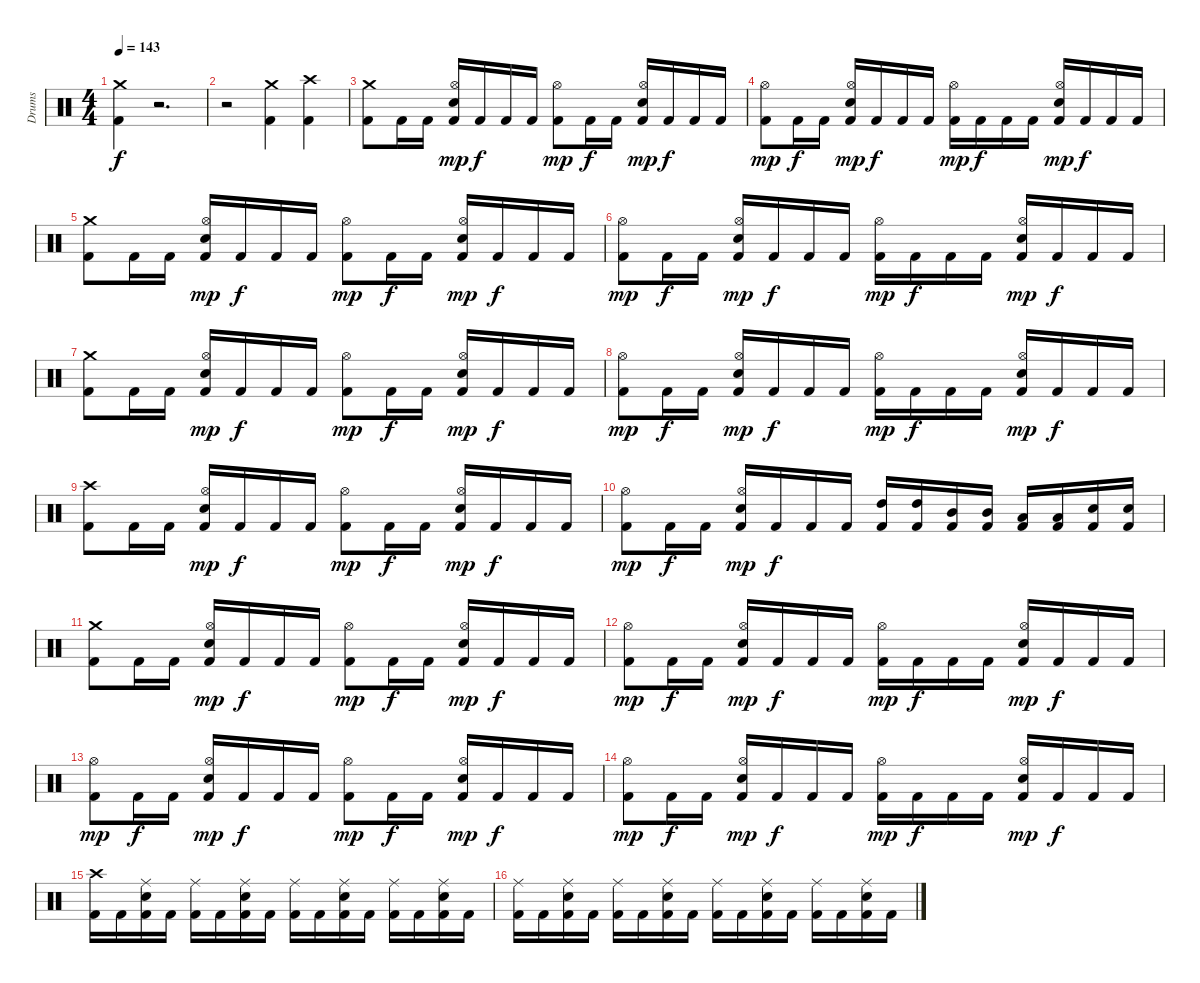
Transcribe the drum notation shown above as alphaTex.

\track ("Drums" "Drums") {instrument percussion}
\staff {score}
\articulation defaults
\ts (4 4)
\tempo 143
\clef neutral
\ks c
("Crash medium (hit)" "Kick (hit) 2").4{dy f} r.2{d} |
r.2 ("Crash medium (hit)" "Kick (hit) 2").4 ("Crash high (hit)" "Kick (hit) 2").4 |
("Crash medium (hit)" "Kick (hit) 2").8 "Kick (hit) 2".16 "Kick (hit) 2".16 ("Hi-Hat (open)" "Electric Snare (hit)" "Kick (hit) 2").16{dy mp} "Kick (hit) 2".16{dy f} "Kick (hit) 2".16 "Kick (hit) 2".16 ("Hi-Hat (open)" "Kick (hit) 2").8{dy mp} "Kick (hit) 2".16{dy f} "Kick (hit) 2".16 ("Hi-Hat (open)" "Electric Snare (hit)" "Kick (hit) 2").16{dy mp} "Kick (hit) 2".16{dy f} "Kick (hit) 2".16 "Kick (hit) 2".16 |
("Hi-Hat (open)" "Kick (hit) 2").8{dy mp} "Kick (hit) 2".16{dy f} "Kick (hit) 2".16 ("Hi-Hat (open)" "Electric Snare (hit)" "Kick (hit) 2").16{dy mp} "Kick (hit) 2".16{dy f} "Kick (hit) 2".16 "Kick (hit) 2".16 ("Hi-Hat (open)" "Kick (hit) 2").16{dy mp} "Kick (hit) 2".16{dy f} "Kick (hit) 2".16 "Kick (hit) 2".16 ("Hi-Hat (open)" "Electric Snare (hit)" "Kick (hit) 2").16{dy mp} "Kick (hit) 2".16{dy f} "Kick (hit) 2".16 "Kick (hit) 2".16 |
("Crash medium (hit)" "Kick (hit) 2").8 "Kick (hit) 2".16 "Kick (hit) 2".16 ("Hi-Hat (open)" "Electric Snare (hit)" "Kick (hit) 2").16{dy mp} "Kick (hit) 2".16{dy f} "Kick (hit) 2".16 "Kick (hit) 2".16 ("Hi-Hat (open)" "Kick (hit) 2").8{dy mp} "Kick (hit) 2".16{dy f} "Kick (hit) 2".16 ("Hi-Hat (open)" "Electric Snare (hit)" "Kick (hit) 2").16{dy mp} "Kick (hit) 2".16{dy f} "Kick (hit) 2".16 "Kick (hit) 2".16 |
("Hi-Hat (open)" "Kick (hit) 2").8{dy mp} "Kick (hit) 2".16{dy f} "Kick (hit) 2".16 ("Hi-Hat (open)" "Electric Snare (hit)" "Kick (hit) 2").16{dy mp} "Kick (hit) 2".16{dy f} "Kick (hit) 2".16 "Kick (hit) 2".16 ("Hi-Hat (open)" "Kick (hit) 2").16{dy mp} "Kick (hit) 2".16{dy f} "Kick (hit) 2".16 "Kick (hit) 2".16 ("Hi-Hat (open)" "Electric Snare (hit)" "Kick (hit) 2").16{dy mp} "Kick (hit) 2".16{dy f} "Kick (hit) 2".16 "Kick (hit) 2".16 |
("Crash medium (hit)" "Kick (hit) 2").8 "Kick (hit) 2".16 "Kick (hit) 2".16 ("Hi-Hat (open)" "Electric Snare (hit)" "Kick (hit) 2").16{dy mp} "Kick (hit) 2".16{dy f} "Kick (hit) 2".16 "Kick (hit) 2".16 ("Hi-Hat (open)" "Kick (hit) 2").8{dy mp} "Kick (hit) 2".16{dy f} "Kick (hit) 2".16 ("Hi-Hat (open)" "Electric Snare (hit)" "Kick (hit) 2").16{dy mp} "Kick (hit) 2".16{dy f} "Kick (hit) 2".16 "Kick (hit) 2".16 |
("Hi-Hat (open)" "Kick (hit) 2").8{dy mp} "Kick (hit) 2".16{dy f} "Kick (hit) 2".16 ("Hi-Hat (open)" "Electric Snare (hit)" "Kick (hit) 2").16{dy mp} "Kick (hit) 2".16{dy f} "Kick (hit) 2".16 "Kick (hit) 2".16 ("Hi-Hat (open)" "Kick (hit) 2").16{dy mp} "Kick (hit) 2".16{dy f} "Kick (hit) 2".16 "Kick (hit) 2".16 ("Hi-Hat (open)" "Electric Snare (hit)" "Kick (hit) 2").16{dy mp} "Kick (hit) 2".16{dy f} "Kick (hit) 2".16 "Kick (hit) 2".16 |
("Crash high (hit)" "Kick (hit) 2").8 "Kick (hit) 2".16 "Kick (hit) 2".16 ("Hi-Hat (open)" "Electric Snare (hit)" "Kick (hit) 2").16{dy mp} "Kick (hit) 2".16{dy f} "Kick (hit) 2".16 "Kick (hit) 2".16 ("Hi-Hat (open)" "Kick (hit) 2").8{dy mp} "Kick (hit) 2".16{dy f} "Kick (hit) 2".16 ("Hi-Hat (open)" "Electric Snare (hit)" "Kick (hit) 2").16{dy mp} "Kick (hit) 2".16{dy f} "Kick (hit) 2".16 "Kick (hit) 2".16 |
("Hi-Hat (open)" "Kick (hit) 2").8{dy mp} "Kick (hit) 2".16{dy f} "Kick (hit) 2".16 ("Hi-Hat (open)" "Electric Snare (hit)" "Kick (hit) 2").16{dy mp} "Kick (hit) 2".16{dy f} "Kick (hit) 2".16 "Kick (hit) 2".16 ("High Tom (hit)" "Kick (hit) 2").16 ("High Tom (hit)" "Kick (hit) 2").16 ("Mid Tom (hit)" "Kick (hit) 2").16 ("Mid Tom (hit)" "Kick (hit) 2").16 ("Low Tom (hit)" "Kick (hit) 2").16 ("Low Tom (hit)" "Kick (hit) 2").16 ("Electric Snare (hit)" "Kick (hit) 2").16 ("Electric Snare (hit)" "Kick (hit) 2").16 |
("Crash medium (hit)" "Kick (hit) 2").8 "Kick (hit) 2".16 "Kick (hit) 2".16 ("Hi-Hat (open)" "Electric Snare (hit)" "Kick (hit) 2").16{dy mp} "Kick (hit) 2".16{dy f} "Kick (hit) 2".16 "Kick (hit) 2".16 ("Hi-Hat (open)" "Kick (hit) 2").8{dy mp} "Kick (hit) 2".16{dy f} "Kick (hit) 2".16 ("Hi-Hat (open)" "Electric Snare (hit)" "Kick (hit) 2").16{dy mp} "Kick (hit) 2".16{dy f} "Kick (hit) 2".16 "Kick (hit) 2".16 |
("Hi-Hat (open)" "Kick (hit) 2").8{dy mp} "Kick (hit) 2".16{dy f} "Kick (hit) 2".16 ("Hi-Hat (open)" "Electric Snare (hit)" "Kick (hit) 2").16{dy mp} "Kick (hit) 2".16{dy f} "Kick (hit) 2".16 "Kick (hit) 2".16 ("Hi-Hat (open)" "Kick (hit) 2").16{dy mp} "Kick (hit) 2".16{dy f} "Kick (hit) 2".16 "Kick (hit) 2".16 ("Hi-Hat (open)" "Electric Snare (hit)" "Kick (hit) 2").16{dy mp} "Kick (hit) 2".16{dy f} "Kick (hit) 2".16 "Kick (hit) 2".16 |
("Hi-Hat (open)" "Kick (hit) 2").8{dy mp} "Kick (hit) 2".16{dy f} "Kick (hit) 2".16 ("Hi-Hat (open)" "Electric Snare (hit)" "Kick (hit) 2").16{dy mp} "Kick (hit) 2".16{dy f} "Kick (hit) 2".16 "Kick (hit) 2".16 ("Hi-Hat (open)" "Kick (hit) 2").8{dy mp} "Kick (hit) 2".16{dy f} "Kick (hit) 2".16 ("Hi-Hat (open)" "Electric Snare (hit)" "Kick (hit) 2").16{dy mp} "Kick (hit) 2".16{dy f} "Kick (hit) 2".16 "Kick (hit) 2".16 |
("Hi-Hat (open)" "Kick (hit) 2").8{dy mp} "Kick (hit) 2".16{dy f} "Kick (hit) 2".16 ("Hi-Hat (open)" "Electric Snare (hit)" "Kick (hit) 2").16{dy mp} "Kick (hit) 2".16{dy f} "Kick (hit) 2".16 "Kick (hit) 2".16 ("Hi-Hat (open)" "Kick (hit) 2").16{dy mp} "Kick (hit) 2".16{dy f} "Kick (hit) 2".16 "Kick (hit) 2".16 ("Hi-Hat (open)" "Electric Snare (hit)" "Kick (hit) 2").16{dy mp} "Kick (hit) 2".16{dy f} "Kick (hit) 2".16 "Kick (hit) 2".16 |
("Crash high (hit)" "Kick (hit) 2").16 "Kick (hit) 2".16 ("Ride (middle)" "Electric Snare (hit)" "Kick (hit) 2").16 "Kick (hit) 2".16 ("Ride (middle)" "Kick (hit) 2").16 "Kick (hit) 2".16 ("Ride (middle)" "Electric Snare (hit)" "Kick (hit) 2").16 "Kick (hit) 2".16 ("Ride (middle)" "Kick (hit) 2").16 "Kick (hit) 2".16 ("Ride (middle)" "Electric Snare (hit)" "Kick (hit) 2").16 "Kick (hit) 2".16 ("Ride (middle)" "Kick (hit) 2").16 "Kick (hit) 2".16 ("Ride (middle)" "Electric Snare (hit)" "Kick (hit) 2").16 "Kick (hit) 2".16 |
("Ride (middle)" "Kick (hit) 2").16 "Kick (hit) 2".16 ("Ride (middle)" "Electric Snare (hit)" "Kick (hit) 2").16 "Kick (hit) 2".16 ("Ride (middle)" "Kick (hit) 2").16 "Kick (hit) 2".16 ("Ride (middle)" "Electric Snare (hit)" "Kick (hit) 2").16 "Kick (hit) 2".16 ("Ride (middle)" "Kick (hit) 2").16 "Kick (hit) 2".16 ("Ride (middle)" "Electric Snare (hit)" "Kick (hit) 2").16 "Kick (hit) 2".16 ("Ride (middle)" "Kick (hit) 2").16 "Kick (hit) 2".16 ("Ride (middle)" "Electric Snare (hit)" "Kick (hit) 2").16 "Kick (hit) 2".16
